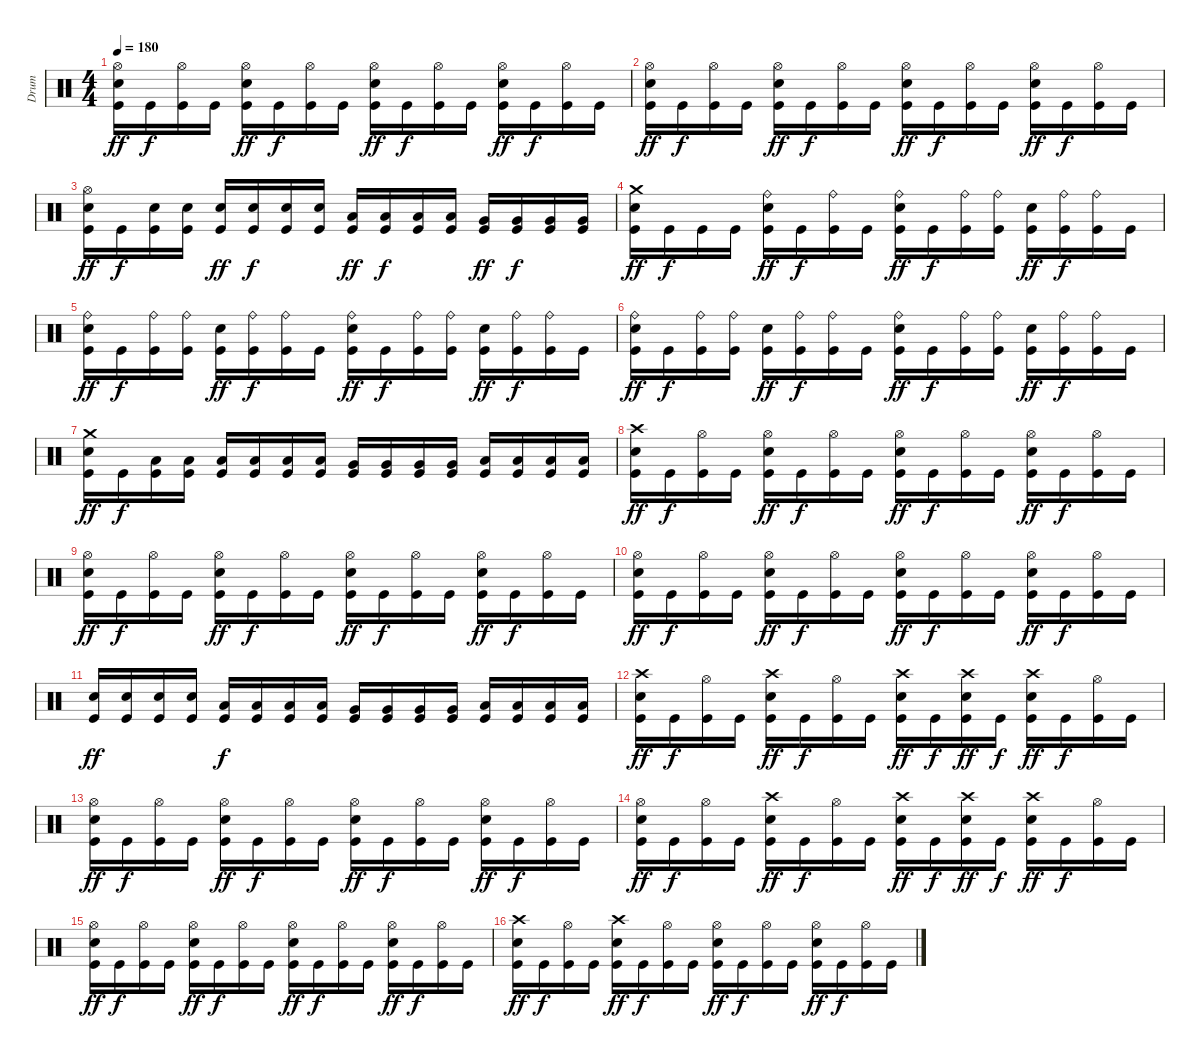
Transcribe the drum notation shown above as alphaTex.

\track ("Drum" "Drum") {instrument percussion}
\staff {score}
\articulation defaults
\ts (4 4)
\tempo 180
\clef neutral
\ks c
("Kick (hit)" "Electric Snare (hit)" "Hi-Hat (open)").16{dy ff} "Kick (hit)".16{dy f} ("Kick (hit)" "Hi-Hat (open)").16 "Kick (hit)".16 ("Kick (hit)" "Electric Snare (hit)" "Hi-Hat (open)").16{dy ff} "Kick (hit)".16{dy f} ("Kick (hit)" "Hi-Hat (open)").16 "Kick (hit)".16 ("Kick (hit)" "Electric Snare (hit)" "Hi-Hat (open)").16{dy ff} "Kick (hit)".16{dy f} ("Kick (hit)" "Hi-Hat (open)").16 "Kick (hit)".16 ("Kick (hit)" "Electric Snare (hit)" "Hi-Hat (open)").16{dy ff} "Kick (hit)".16{dy f} ("Kick (hit)" "Hi-Hat (open)").16 "Kick (hit)".16 |
("Kick (hit)" "Electric Snare (hit)" "Hi-Hat (open)").16{dy ff} "Kick (hit)".16{dy f} ("Kick (hit)" "Hi-Hat (open)").16 "Kick (hit)".16 ("Kick (hit)" "Electric Snare (hit)" "Hi-Hat (open)").16{dy ff} "Kick (hit)".16{dy f} ("Kick (hit)" "Hi-Hat (open)").16 "Kick (hit)".16 ("Kick (hit)" "Electric Snare (hit)" "Hi-Hat (open)").16{dy ff} "Kick (hit)".16{dy f} ("Kick (hit)" "Hi-Hat (open)").16 "Kick (hit)".16 ("Kick (hit)" "Electric Snare (hit)" "Hi-Hat (open)").16{dy ff} "Kick (hit)".16{dy f} ("Kick (hit)" "Hi-Hat (open)").16 "Kick (hit)".16 |
("Kick (hit)" "Electric Snare (hit)" "Hi-Hat (open)").16{dy ff} "Kick (hit)".16{dy f} ("Kick (hit)" "Electric Snare (hit)").16 ("Kick (hit)" "Electric Snare (hit)").16 ("Kick (hit)" "Electric Snare (hit)").16{dy ff} ("Kick (hit)" "Electric Snare (hit)").16{dy f} ("Kick (hit)" "Electric Snare (hit)").16 ("Kick (hit)" "Electric Snare (hit)").16 ("Kick (hit)" "Low Tom (hit)").16{dy ff} ("Kick (hit)" "Low Tom (hit)").16{dy f} ("Kick (hit)" "Low Tom (hit)").16 ("Kick (hit)" "Low Tom (hit)").16 ("Kick (hit)" "Very Low Tom (hit)").16{dy ff} ("Kick (hit)" "Very Low Tom (hit)").16{dy f} ("Kick (hit)" "Very Low Tom (hit)").16 ("Kick (hit)" "Very Low Tom (hit)").16 |
("Kick (hit)" "Electric Snare (hit)" "Crash medium (hit)").16{dy ff} "Kick (hit)".16{dy f} "Kick (hit)".16 "Kick (hit)".16 ("Kick (hit)" "Electric Snare (hit)" "Ride (bell)").16{dy ff} "Kick (hit)".16{dy f} ("Kick (hit)" "Ride (bell)").16 "Kick (hit)".16 ("Kick (hit)" "Electric Snare (hit)" "Ride (bell)").16{dy ff} "Kick (hit)".16{dy f} ("Kick (hit)" "Ride (bell)").16 ("Kick (hit)" "Ride (bell)").16 ("Kick (hit)" "Electric Snare (hit)").16{dy ff} ("Kick (hit)" "Ride (bell)").16{dy f} ("Kick (hit)" "Ride (bell)").16 "Kick (hit)".16 |
("Kick (hit)" "Electric Snare (hit)" "Ride (bell)").16{dy ff} "Kick (hit)".16{dy f} ("Kick (hit)" "Ride (bell)").16 ("Kick (hit)" "Ride (bell)").16 ("Kick (hit)" "Electric Snare (hit)").16{dy ff} ("Kick (hit)" "Ride (bell)").16{dy f} ("Kick (hit)" "Ride (bell)").16 "Kick (hit)".16 ("Kick (hit)" "Electric Snare (hit)" "Ride (bell)").16{dy ff} "Kick (hit)".16{dy f} ("Kick (hit)" "Ride (bell)").16 ("Kick (hit)" "Ride (bell)").16 ("Kick (hit)" "Electric Snare (hit)").16{dy ff} ("Kick (hit)" "Ride (bell)").16{dy f} ("Kick (hit)" "Ride (bell)").16 "Kick (hit)".16 |
("Kick (hit)" "Electric Snare (hit)" "Ride (bell)").16{dy ff} "Kick (hit)".16{dy f} ("Kick (hit)" "Ride (bell)").16 ("Kick (hit)" "Ride (bell)").16 ("Kick (hit)" "Electric Snare (hit)").16{dy ff} ("Kick (hit)" "Ride (bell)").16{dy f} ("Kick (hit)" "Ride (bell)").16 "Kick (hit)".16 ("Kick (hit)" "Electric Snare (hit)" "Ride (bell)").16{dy ff} "Kick (hit)".16{dy f} ("Kick (hit)" "Ride (bell)").16 ("Kick (hit)" "Ride (bell)").16 ("Kick (hit)" "Electric Snare (hit)").16{dy ff} ("Kick (hit)" "Ride (bell)").16{dy f} ("Kick (hit)" "Ride (bell)").16 "Kick (hit)".16 |
("Kick (hit)" "Electric Snare (hit)" "Crash medium (hit)").16{dy ff} "Kick (hit)".16{dy f} ("Kick (hit)" "Low Tom (hit)").16 ("Kick (hit)" "Low Tom (hit)").16 ("Kick (hit)" "Low Tom (hit)").16 ("Kick (hit)" "Low Tom (hit)").16 ("Kick (hit)" "Low Tom (hit)").16 ("Kick (hit)" "Low Tom (hit)").16 ("Kick (hit)" "Very Low Tom (hit)").16 ("Kick (hit)" "Very Low Tom (hit)").16 ("Kick (hit)" "Very Low Tom (hit)").16 ("Kick (hit)" "Very Low Tom (hit)").16 ("Kick (hit)" "Low Floor Tom (hit)").16 ("Kick (hit)" "Low Floor Tom (hit)").16 ("Kick (hit)" "Low Floor Tom (hit)").16 ("Kick (hit)" "Low Floor Tom (hit)").16 |
("Kick (hit)" "Electric Snare (hit)" "Crash high (hit)").16{dy ff} "Kick (hit)".16{dy f} ("Kick (hit)" "Hi-Hat (open)").16 "Kick (hit)".16 ("Kick (hit)" "Electric Snare (hit)" "Hi-Hat (open)").16{dy ff} "Kick (hit)".16{dy f} ("Kick (hit)" "Hi-Hat (open)").16 "Kick (hit)".16 ("Kick (hit)" "Electric Snare (hit)" "Hi-Hat (open)").16{dy ff} "Kick (hit)".16{dy f} ("Kick (hit)" "Hi-Hat (open)").16 "Kick (hit)".16 ("Kick (hit)" "Electric Snare (hit)" "Hi-Hat (open)").16{dy ff} "Kick (hit)".16{dy f} ("Kick (hit)" "Hi-Hat (open)").16 "Kick (hit)".16 |
("Kick (hit)" "Electric Snare (hit)" "Hi-Hat (open)").16{dy ff} "Kick (hit)".16{dy f} ("Kick (hit)" "Hi-Hat (open)").16 "Kick (hit)".16 ("Kick (hit)" "Electric Snare (hit)" "Hi-Hat (open)").16{dy ff} "Kick (hit)".16{dy f} ("Kick (hit)" "Hi-Hat (open)").16 "Kick (hit)".16 ("Kick (hit)" "Electric Snare (hit)" "Hi-Hat (open)").16{dy ff} "Kick (hit)".16{dy f} ("Kick (hit)" "Hi-Hat (open)").16 "Kick (hit)".16 ("Kick (hit)" "Electric Snare (hit)" "Hi-Hat (open)").16{dy ff} "Kick (hit)".16{dy f} ("Kick (hit)" "Hi-Hat (open)").16 "Kick (hit)".16 |
("Kick (hit)" "Electric Snare (hit)" "Hi-Hat (open)").16{dy ff} "Kick (hit)".16{dy f} ("Kick (hit)" "Hi-Hat (open)").16 "Kick (hit)".16 ("Kick (hit)" "Electric Snare (hit)" "Hi-Hat (open)").16{dy ff} "Kick (hit)".16{dy f} ("Kick (hit)" "Hi-Hat (open)").16 "Kick (hit)".16 ("Kick (hit)" "Electric Snare (hit)" "Hi-Hat (open)").16{dy ff} "Kick (hit)".16{dy f} ("Kick (hit)" "Hi-Hat (open)").16 "Kick (hit)".16 ("Kick (hit)" "Electric Snare (hit)" "Hi-Hat (open)").16{dy ff} "Kick (hit)".16{dy f} ("Kick (hit)" "Hi-Hat (open)").16 "Kick (hit)".16 |
("Kick (hit)" "Electric Snare (hit)").16{dy ff} ("Kick (hit)" "Electric Snare (hit)").16 ("Kick (hit)" "Electric Snare (hit)").16 ("Kick (hit)" "Electric Snare (hit)").16 ("Kick (hit)" "Low Tom (hit)").16{dy f} ("Kick (hit)" "Low Tom (hit)").16 ("Kick (hit)" "Low Tom (hit)").16 ("Kick (hit)" "Low Tom (hit)").16 ("Kick (hit)" "Very Low Tom (hit)").16 ("Kick (hit)" "Very Low Tom (hit)").16 ("Kick (hit)" "Very Low Tom (hit)").16 ("Kick (hit)" "Very Low Tom (hit)").16 ("Kick (hit)" "Low Floor Tom (hit)").16 ("Kick (hit)" "Low Floor Tom (hit)").16 ("Kick (hit)" "Low Floor Tom (hit)").16 ("Kick (hit)" "Low Floor Tom (hit)").16 |
("Kick (hit)" "Electric Snare (hit)" "Crash high (hit)").16{dy ff} "Kick (hit)".16{dy f} ("Kick (hit)" "Hi-Hat (open)").16 "Kick (hit)".16 ("Kick (hit)" "Electric Snare (hit)" "Crash high (hit)").16{dy ff} "Kick (hit)".16{dy f} ("Kick (hit)" "Hi-Hat (open)").16 "Kick (hit)".16 ("Kick (hit)" "Electric Snare (hit)" "Crash high (hit)").16{dy ff} "Kick (hit)".16{dy f} ("Kick (hit)" "Electric Snare (hit)" "Crash high (hit)").16{dy ff} "Kick (hit)".16{dy f} ("Kick (hit)" "Electric Snare (hit)" "Crash high (hit)").16{dy ff} "Kick (hit)".16{dy f} ("Kick (hit)" "Hi-Hat (open)").16 "Kick (hit)".16 |
("Kick (hit)" "Electric Snare (hit)" "Hi-Hat (open)").16{dy ff} "Kick (hit)".16{dy f} ("Kick (hit)" "Hi-Hat (open)").16 "Kick (hit)".16 ("Kick (hit)" "Electric Snare (hit)" "Hi-Hat (open)").16{dy ff} "Kick (hit)".16{dy f} ("Kick (hit)" "Hi-Hat (open)").16 "Kick (hit)".16 ("Kick (hit)" "Electric Snare (hit)" "Hi-Hat (open)").16{dy ff} "Kick (hit)".16{dy f} ("Kick (hit)" "Hi-Hat (open)").16 "Kick (hit)".16 ("Kick (hit)" "Electric Snare (hit)" "Hi-Hat (open)").16{dy ff} "Kick (hit)".16{dy f} ("Kick (hit)" "Hi-Hat (open)").16 "Kick (hit)".16 |
("Kick (hit)" "Electric Snare (hit)" "Hi-Hat (open)").16{dy ff} "Kick (hit)".16{dy f} ("Kick (hit)" "Hi-Hat (open)").16 "Kick (hit)".16 ("Kick (hit)" "Electric Snare (hit)" "Crash high (hit)").16{dy ff} "Kick (hit)".16{dy f} ("Kick (hit)" "Hi-Hat (open)").16 "Kick (hit)".16 ("Kick (hit)" "Electric Snare (hit)" "Crash high (hit)").16{dy ff} "Kick (hit)".16{dy f} ("Kick (hit)" "Electric Snare (hit)" "Crash high (hit)").16{dy ff} "Kick (hit)".16{dy f} ("Kick (hit)" "Electric Snare (hit)" "Crash high (hit)").16{dy ff} "Kick (hit)".16{dy f} ("Kick (hit)" "Hi-Hat (open)").16 "Kick (hit)".16 |
("Kick (hit)" "Electric Snare (hit)" "Hi-Hat (open)").16{dy ff} "Kick (hit)".16{dy f} ("Kick (hit)" "Hi-Hat (open)").16 "Kick (hit)".16 ("Kick (hit)" "Electric Snare (hit)" "Hi-Hat (open)").16{dy ff} "Kick (hit)".16{dy f} ("Kick (hit)" "Hi-Hat (open)").16 "Kick (hit)".16 ("Kick (hit)" "Electric Snare (hit)" "Hi-Hat (open)").16{dy ff} "Kick (hit)".16{dy f} ("Kick (hit)" "Hi-Hat (open)").16 "Kick (hit)".16 ("Kick (hit)" "Electric Snare (hit)" "Hi-Hat (open)").16{dy ff} "Kick (hit)".16{dy f} ("Kick (hit)" "Hi-Hat (open)").16 "Kick (hit)".16 |
("Kick (hit)" "Electric Snare (hit)" "Crash high (hit)").16{dy ff} "Kick (hit)".16{dy f} ("Kick (hit)" "Hi-Hat (open)").16 "Kick (hit)".16 ("Kick (hit)" "Electric Snare (hit)" "Crash high (hit)").16{dy ff} "Kick (hit)".16{dy f} ("Kick (hit)" "Hi-Hat (open)").16 "Kick (hit)".16 ("Kick (hit)" "Electric Snare (hit)" "Hi-Hat (open)").16{dy ff} "Kick (hit)".16{dy f} ("Kick (hit)" "Hi-Hat (open)").16 "Kick (hit)".16 ("Kick (hit)" "Electric Snare (hit)" "Hi-Hat (open)").16{dy ff} "Kick (hit)".16{dy f} ("Kick (hit)" "Hi-Hat (open)").16 "Kick (hit)".16
